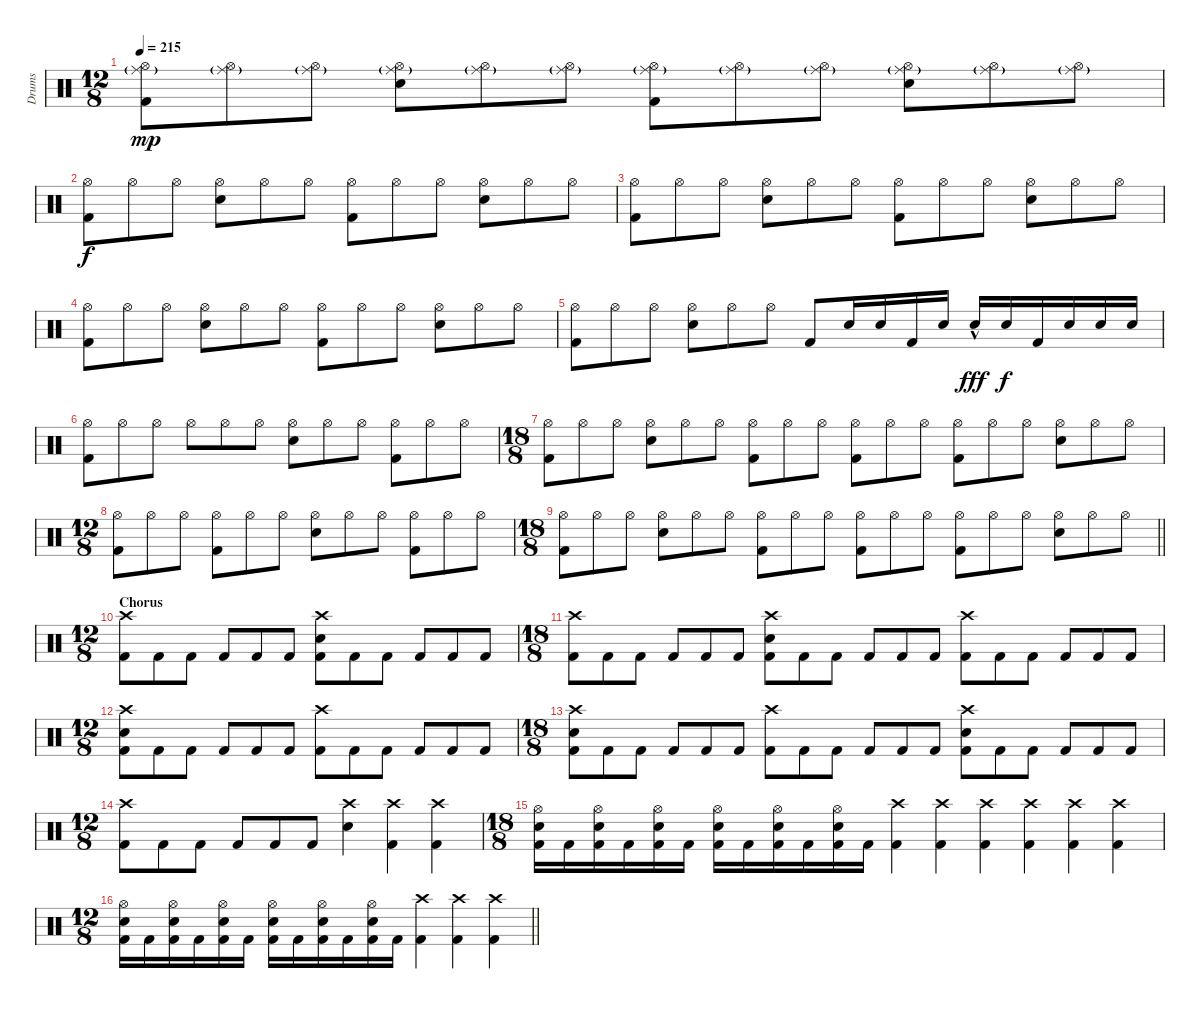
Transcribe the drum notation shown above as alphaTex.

\track ("Drums" "Drums") {instrument percussion bank 127}
\staff {score}
\articulation defaults
\ts (12 8)
\tempo 215
\clef neutral
\ks c
("Ride (middle)"{g} "Hi-Hat (open)" "Kick (hit) 2").8{dy mp} ("Ride (middle)"{g} "Hi-Hat (open)").8 ("Ride (middle)"{g} "Hi-Hat (open)").8 ("Ride (middle)"{g} "Hi-Hat (open)" "Electric Snare (hit)").8 ("Ride (middle)"{g} "Hi-Hat (open)").8 ("Ride (middle)"{g} "Hi-Hat (open)").8 ("Ride (middle)"{g} "Hi-Hat (open)" "Kick (hit) 2").8 ("Ride (middle)"{g} "Hi-Hat (open)").8 ("Ride (middle)"{g} "Hi-Hat (open)").8 ("Ride (middle)"{g} "Hi-Hat (open)" "Electric Snare (hit)").8 ("Ride (middle)"{g} "Hi-Hat (open)").8 ("Ride (middle)"{g} "Hi-Hat (open)").8 |
("Hi-Hat (open)" "Kick (hit) 2").8{dy f} "Hi-Hat (open)".8 "Hi-Hat (open)".8 ("Hi-Hat (open)" "Electric Snare (hit)").8 "Hi-Hat (open)".8 "Hi-Hat (open)".8 ("Hi-Hat (open)" "Kick (hit) 2").8 "Hi-Hat (open)".8 "Hi-Hat (open)".8 ("Hi-Hat (open)" "Electric Snare (hit)").8 "Hi-Hat (open)".8 "Hi-Hat (open)".8 |
("Hi-Hat (open)" "Kick (hit) 2").8 "Hi-Hat (open)".8 "Hi-Hat (open)".8 ("Hi-Hat (open)" "Electric Snare (hit)").8 "Hi-Hat (open)".8 "Hi-Hat (open)".8 ("Hi-Hat (open)" "Kick (hit) 2").8 "Hi-Hat (open)".8 "Hi-Hat (open)".8 ("Hi-Hat (open)" "Electric Snare (hit)").8 "Hi-Hat (open)".8 "Hi-Hat (open)".8 |
("Hi-Hat (open)" "Kick (hit) 2").8 "Hi-Hat (open)".8 "Hi-Hat (open)".8 ("Hi-Hat (open)" "Electric Snare (hit)").8 "Hi-Hat (open)".8 "Hi-Hat (open)".8 ("Hi-Hat (open)" "Kick (hit) 2").8 "Hi-Hat (open)".8 "Hi-Hat (open)".8 ("Hi-Hat (open)" "Electric Snare (hit)").8 "Hi-Hat (open)".8 "Hi-Hat (open)".8 |
("Hi-Hat (open)" "Kick (hit) 2").8 "Hi-Hat (open)".8 "Hi-Hat (open)".8 ("Hi-Hat (open)" "Electric Snare (hit)").8 "Hi-Hat (open)".8 "Hi-Hat (open)".8 "Kick (hit) 2".8 "Electric Snare (hit)".16 "Electric Snare (hit)".16 "Kick (hit) 2".16 "Electric Snare (hit)".16 "Electric Snare (hit)"{hac}.16{dy fff} "Electric Snare (hit)".16{dy f} "Kick (hit) 2".16 "Electric Snare (hit)".16 "Electric Snare (hit)".16 "Electric Snare (hit)".16 |
("Hi-Hat (open)" "Kick (hit) 2").8 "Hi-Hat (open)".8 "Hi-Hat (open)".8 "Hi-Hat (open)".8 "Hi-Hat (open)".8 "Hi-Hat (open)".8 ("Hi-Hat (open)" "Electric Snare (hit)").8 "Hi-Hat (open)".8 "Hi-Hat (open)".8 ("Hi-Hat (open)" "Kick (hit) 2").8 "Hi-Hat (open)".8 "Hi-Hat (open)".8 |
\ts (18 8)
("Hi-Hat (open)" "Kick (hit) 2").8 "Hi-Hat (open)".8 "Hi-Hat (open)".8 ("Hi-Hat (open)" "Electric Snare (hit)").8 "Hi-Hat (open)".8 "Hi-Hat (open)".8 ("Hi-Hat (open)" "Kick (hit) 2").8 "Hi-Hat (open)".8 "Hi-Hat (open)".8 ("Hi-Hat (open)" "Kick (hit) 2").8 "Hi-Hat (open)".8 "Hi-Hat (open)".8 ("Hi-Hat (open)" "Kick (hit) 2").8 "Hi-Hat (open)".8 "Hi-Hat (open)".8 ("Hi-Hat (open)" "Electric Snare (hit)").8 "Hi-Hat (open)".8 "Hi-Hat (open)".8 |
\ts (12 8)
("Hi-Hat (open)" "Kick (hit) 2").8 "Hi-Hat (open)".8 "Hi-Hat (open)".8 ("Hi-Hat (open)" "Kick (hit) 2").8 "Hi-Hat (open)".8 "Hi-Hat (open)".8 ("Hi-Hat (open)" "Electric Snare (hit)").8 "Hi-Hat (open)".8 "Hi-Hat (open)".8 ("Hi-Hat (open)" "Kick (hit) 2").8 "Hi-Hat (open)".8 "Hi-Hat (open)".8 |
\ts (18 8)
\barLineRight lightlight
("Hi-Hat (open)" "Kick (hit) 2").8 "Hi-Hat (open)".8 "Hi-Hat (open)".8 ("Hi-Hat (open)" "Electric Snare (hit)").8 "Hi-Hat (open)".8 "Hi-Hat (open)".8 ("Hi-Hat (open)" "Kick (hit) 2").8 "Hi-Hat (open)".8 "Hi-Hat (open)".8 ("Hi-Hat (open)" "Kick (hit) 2").8 "Hi-Hat (open)".8 "Hi-Hat (open)".8 ("Hi-Hat (open)" "Kick (hit) 2").8 "Hi-Hat (open)".8 "Hi-Hat (open)".8 ("Hi-Hat (open)" "Electric Snare (hit)").8 "Hi-Hat (open)".8 "Hi-Hat (open)".8 |
\ts (12 8)
\section ("" "Chorus")
("Crash high (hit)" "Kick (hit) 2").8 "Kick (hit) 2".8 "Kick (hit) 2".8 "Kick (hit) 2".8 "Kick (hit) 2".8 "Kick (hit) 2".8 ("Crash high (hit)" "Electric Snare (hit)" "Kick (hit) 2").8 "Kick (hit) 2".8 "Kick (hit) 2".8 "Kick (hit) 2".8 "Kick (hit) 2".8 "Kick (hit) 2".8 |
\ts (18 8)
("Crash high (hit)" "Kick (hit) 2").8 "Kick (hit) 2".8 "Kick (hit) 2".8 "Kick (hit) 2".8 "Kick (hit) 2".8 "Kick (hit) 2".8 ("Crash high (hit)" "Electric Snare (hit)" "Kick (hit) 2").8 "Kick (hit) 2".8 "Kick (hit) 2".8 "Kick (hit) 2".8 "Kick (hit) 2".8 "Kick (hit) 2".8 ("Crash high (hit)" "Kick (hit) 2").8 "Kick (hit) 2".8 "Kick (hit) 2".8 "Kick (hit) 2".8 "Kick (hit) 2".8 "Kick (hit) 2".8 |
\ts (12 8)
("Crash high (hit)" "Electric Snare (hit)" "Kick (hit) 2").8 "Kick (hit) 2".8 "Kick (hit) 2".8 "Kick (hit) 2".8 "Kick (hit) 2".8 "Kick (hit) 2".8 ("Crash high (hit)" "Kick (hit) 2").8 "Kick (hit) 2".8 "Kick (hit) 2".8 "Kick (hit) 2".8 "Kick (hit) 2".8 "Kick (hit) 2".8 |
\ts (18 8)
("Crash high (hit)" "Electric Snare (hit)" "Kick (hit) 2").8 "Kick (hit) 2".8 "Kick (hit) 2".8 "Kick (hit) 2".8 "Kick (hit) 2".8 "Kick (hit) 2".8 ("Crash high (hit)" "Kick (hit) 2").8 "Kick (hit) 2".8 "Kick (hit) 2".8 "Kick (hit) 2".8 "Kick (hit) 2".8 "Kick (hit) 2".8 ("Crash high (hit)" "Electric Snare (hit)" "Kick (hit) 2").8 "Kick (hit) 2".8 "Kick (hit) 2".8 "Kick (hit) 2".8 "Kick (hit) 2".8 "Kick (hit) 2".8 |
\ts (12 8)
("Crash high (hit)" "Kick (hit) 2").8 "Kick (hit) 2".8 "Kick (hit) 2".8 "Kick (hit) 2".8 "Kick (hit) 2".8 "Kick (hit) 2".8 ("Crash high (hit)" "Electric Snare (hit)").4 ("Crash high (hit)" "Kick (hit) 2").4 ("Crash high (hit)" "Kick (hit) 2").4 |
\ts (18 8)
("Electric Snare (hit)" "Hi-Hat (open)" "Kick (hit) 2").16 "Kick (hit) 2".16 ("Electric Snare (hit)" "Hi-Hat (open)" "Kick (hit) 2").16 "Kick (hit) 2".16 ("Electric Snare (hit)" "Hi-Hat (open)" "Kick (hit) 2").16 "Kick (hit) 2".16 ("Electric Snare (hit)" "Hi-Hat (open)" "Kick (hit) 2").16 "Kick (hit) 2".16 ("Electric Snare (hit)" "Hi-Hat (open)" "Kick (hit) 2").16 "Kick (hit) 2".16 ("Electric Snare (hit)" "Hi-Hat (open)" "Kick (hit) 2").16 "Kick (hit) 2".16 ("Crash high (hit)" "Kick (hit) 2").4 ("Crash high (hit)" "Kick (hit) 2").4 ("Crash high (hit)" "Kick (hit) 2").4 ("Crash high (hit)" "Kick (hit) 2").4 ("Crash high (hit)" "Kick (hit) 2").4 ("Crash high (hit)" "Kick (hit) 2").4 |
\ts (12 8)
\barLineRight lightlight
("Electric Snare (hit)" "Hi-Hat (open)" "Kick (hit) 2").16 "Kick (hit) 2".16 ("Electric Snare (hit)" "Hi-Hat (open)" "Kick (hit) 2").16 "Kick (hit) 2".16 ("Electric Snare (hit)" "Hi-Hat (open)" "Kick (hit) 2").16 "Kick (hit) 2".16 ("Electric Snare (hit)" "Hi-Hat (open)" "Kick (hit) 2").16 "Kick (hit) 2".16 ("Electric Snare (hit)" "Hi-Hat (open)" "Kick (hit) 2").16 "Kick (hit) 2".16 ("Electric Snare (hit)" "Hi-Hat (open)" "Kick (hit) 2").16 "Kick (hit) 2".16 ("Crash high (hit)" "Kick (hit) 2").4 ("Crash high (hit)" "Kick (hit) 2").4 ("Crash high (hit)" "Kick (hit) 2").4
